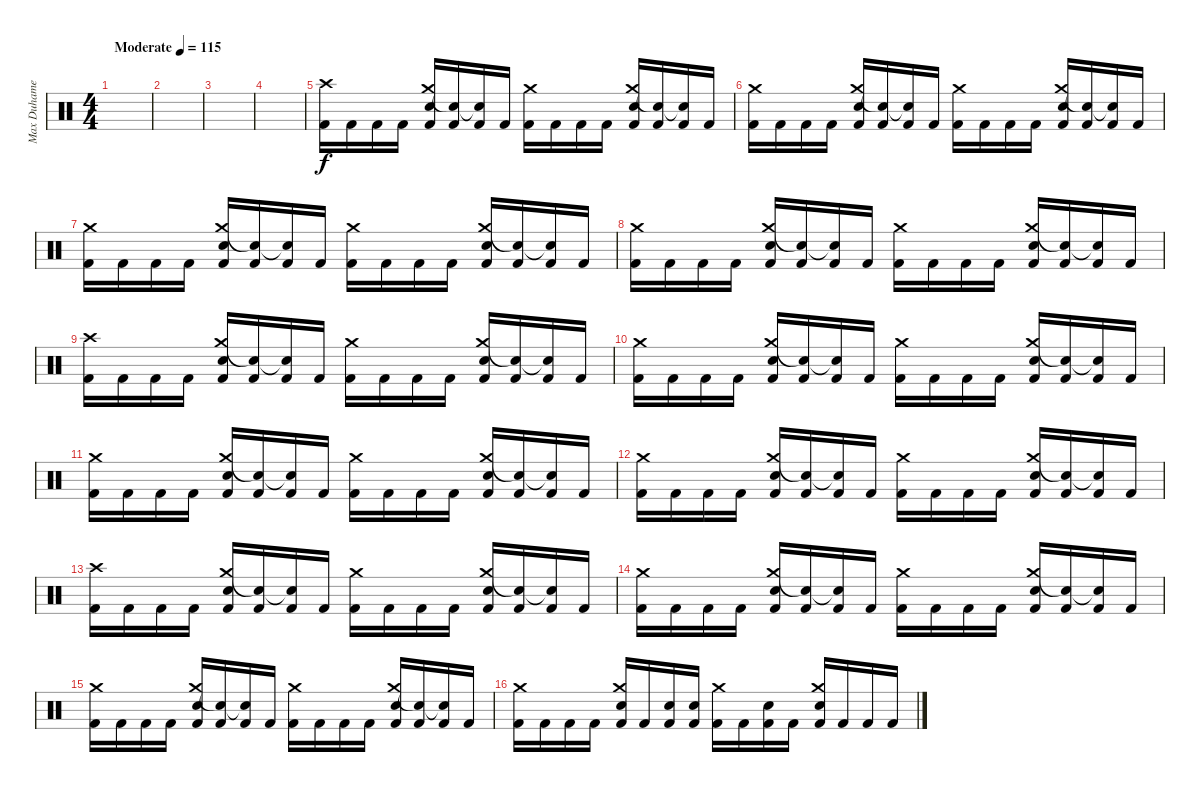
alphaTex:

\track ("Max Duhamel (Drums)" "Max Duhame") {instrument percussion}
\staff {score}
\articulation defaults
\ts (4 4)
\tempo (115 "Moderate")
\clef neutral
\ks c
|
|
|
|
("Crash high (hit)" "Kick (hit) 2").16 "Kick (hit) 2".16 "Kick (hit) 2".16 "Kick (hit) 2".16 ("Crash medium (hit)" "Electric Snare (hit)" "Kick (hit) 2").16 ("Snare (hit)"{t} "Kick (hit) 2").16 ("Snare (hit)"{t} "Kick (hit) 2").16 "Kick (hit) 2".16 ("Crash medium (hit)" "Kick (hit) 2").16 "Kick (hit) 2".16 "Kick (hit) 2".16 "Kick (hit) 2".16 ("Crash medium (hit)" "Electric Snare (hit)" "Kick (hit) 2").16 ("Snare (hit)"{t} "Kick (hit) 2").16 ("Snare (hit)"{t} "Kick (hit) 2").16 "Kick (hit) 2".16 |
("Crash medium (hit)" "Kick (hit) 2").16 "Kick (hit) 2".16 "Kick (hit) 2".16 "Kick (hit) 2".16 ("Crash medium (hit)" "Electric Snare (hit)" "Kick (hit) 2").16 ("Snare (hit)"{t} "Kick (hit) 2").16 ("Snare (hit)"{t} "Kick (hit) 2").16 "Kick (hit) 2".16 ("Crash medium (hit)" "Kick (hit) 2").16 "Kick (hit) 2".16 "Kick (hit) 2".16 "Kick (hit) 2".16 ("Crash medium (hit)" "Electric Snare (hit)" "Kick (hit) 2").16 ("Snare (hit)"{t} "Kick (hit) 2").16 ("Snare (hit)"{t} "Kick (hit) 2").16 "Kick (hit) 2".16 |
("Crash medium (hit)" "Kick (hit) 2").16 "Kick (hit) 2".16 "Kick (hit) 2".16 "Kick (hit) 2".16 ("Crash medium (hit)" "Electric Snare (hit)" "Kick (hit) 2").16 ("Snare (hit)"{t} "Kick (hit) 2").16 ("Snare (hit)"{t} "Kick (hit) 2").16 "Kick (hit) 2".16 ("Crash medium (hit)" "Kick (hit) 2").16 "Kick (hit) 2".16 "Kick (hit) 2".16 "Kick (hit) 2".16 ("Crash medium (hit)" "Electric Snare (hit)" "Kick (hit) 2").16 ("Snare (hit)"{t} "Kick (hit) 2").16 ("Snare (hit)"{t} "Kick (hit) 2").16 "Kick (hit) 2".16 |
("Crash medium (hit)" "Kick (hit) 2").16 "Kick (hit) 2".16 "Kick (hit) 2".16 "Kick (hit) 2".16 ("Crash medium (hit)" "Electric Snare (hit)" "Kick (hit) 2").16 ("Snare (hit)"{t} "Kick (hit) 2").16 ("Snare (hit)"{t} "Kick (hit) 2").16 "Kick (hit) 2".16 ("Crash medium (hit)" "Kick (hit) 2").16 "Kick (hit) 2".16 "Kick (hit) 2".16 "Kick (hit) 2".16 ("Crash medium (hit)" "Electric Snare (hit)" "Kick (hit) 2").16 ("Snare (hit)"{t} "Kick (hit) 2").16 ("Snare (hit)"{t} "Kick (hit) 2").16 "Kick (hit) 2".16 |
("Crash high (hit)" "Kick (hit) 2").16 "Kick (hit) 2".16 "Kick (hit) 2".16 "Kick (hit) 2".16 ("Crash medium (hit)" "Electric Snare (hit)" "Kick (hit) 2").16 ("Snare (hit)"{t} "Kick (hit) 2").16 ("Snare (hit)"{t} "Kick (hit) 2").16 "Kick (hit) 2".16 ("Crash medium (hit)" "Kick (hit) 2").16 "Kick (hit) 2".16 "Kick (hit) 2".16 "Kick (hit) 2".16 ("Crash medium (hit)" "Electric Snare (hit)" "Kick (hit) 2").16 ("Snare (hit)"{t} "Kick (hit) 2").16 ("Snare (hit)"{t} "Kick (hit) 2").16 "Kick (hit) 2".16 |
("Crash medium (hit)" "Kick (hit) 2").16 "Kick (hit) 2".16 "Kick (hit) 2".16 "Kick (hit) 2".16 ("Crash medium (hit)" "Electric Snare (hit)" "Kick (hit) 2").16 ("Snare (hit)"{t} "Kick (hit) 2").16 ("Snare (hit)"{t} "Kick (hit) 2").16 "Kick (hit) 2".16 ("Crash medium (hit)" "Kick (hit) 2").16 "Kick (hit) 2".16 "Kick (hit) 2".16 "Kick (hit) 2".16 ("Crash medium (hit)" "Electric Snare (hit)" "Kick (hit) 2").16 ("Snare (hit)"{t} "Kick (hit) 2").16 ("Snare (hit)"{t} "Kick (hit) 2").16 "Kick (hit) 2".16 |
("Crash medium (hit)" "Kick (hit) 2").16 "Kick (hit) 2".16 "Kick (hit) 2".16 "Kick (hit) 2".16 ("Crash medium (hit)" "Electric Snare (hit)" "Kick (hit) 2").16 ("Snare (hit)"{t} "Kick (hit) 2").16 ("Snare (hit)"{t} "Kick (hit) 2").16 "Kick (hit) 2".16 ("Crash medium (hit)" "Kick (hit) 2").16 "Kick (hit) 2".16 "Kick (hit) 2".16 "Kick (hit) 2".16 ("Crash medium (hit)" "Electric Snare (hit)" "Kick (hit) 2").16 ("Snare (hit)"{t} "Kick (hit) 2").16 ("Snare (hit)"{t} "Kick (hit) 2").16 "Kick (hit) 2".16 |
("Crash medium (hit)" "Kick (hit) 2").16 "Kick (hit) 2".16 "Kick (hit) 2".16 "Kick (hit) 2".16 ("Crash medium (hit)" "Electric Snare (hit)" "Kick (hit) 2").16 ("Snare (hit)"{t} "Kick (hit) 2").16 ("Snare (hit)"{t} "Kick (hit) 2").16 "Kick (hit) 2".16 ("Crash medium (hit)" "Kick (hit) 2").16 "Kick (hit) 2".16 "Kick (hit) 2".16 "Kick (hit) 2".16 ("Crash medium (hit)" "Electric Snare (hit)" "Kick (hit) 2").16 ("Snare (hit)"{t} "Kick (hit) 2").16 ("Snare (hit)"{t} "Kick (hit) 2").16 "Kick (hit) 2".16 |
("Crash high (hit)" "Kick (hit) 2").16 "Kick (hit) 2".16 "Kick (hit) 2".16 "Kick (hit) 2".16 ("Crash medium (hit)" "Electric Snare (hit)" "Kick (hit) 2").16 ("Snare (hit)"{t} "Kick (hit) 2").16 ("Snare (hit)"{t} "Kick (hit) 2").16 "Kick (hit) 2".16 ("Crash medium (hit)" "Kick (hit) 2").16 "Kick (hit) 2".16 "Kick (hit) 2".16 "Kick (hit) 2".16 ("Crash medium (hit)" "Electric Snare (hit)" "Kick (hit) 2").16 ("Snare (hit)"{t} "Kick (hit) 2").16 ("Snare (hit)"{t} "Kick (hit) 2").16 "Kick (hit) 2".16 |
("Crash medium (hit)" "Kick (hit) 2").16 "Kick (hit) 2".16 "Kick (hit) 2".16 "Kick (hit) 2".16 ("Crash medium (hit)" "Electric Snare (hit)" "Kick (hit) 2").16 ("Snare (hit)"{t} "Kick (hit) 2").16 ("Snare (hit)"{t} "Kick (hit) 2").16 "Kick (hit) 2".16 ("Crash medium (hit)" "Kick (hit) 2").16 "Kick (hit) 2".16 "Kick (hit) 2".16 "Kick (hit) 2".16 ("Crash medium (hit)" "Electric Snare (hit)" "Kick (hit) 2").16 ("Snare (hit)"{t} "Kick (hit) 2").16 ("Snare (hit)"{t} "Kick (hit) 2").16 "Kick (hit) 2".16 |
("Crash medium (hit)" "Kick (hit) 2").16 "Kick (hit) 2".16 "Kick (hit) 2".16 "Kick (hit) 2".16 ("Crash medium (hit)" "Electric Snare (hit)" "Kick (hit) 2").16 ("Snare (hit)"{t} "Kick (hit) 2").16 ("Snare (hit)"{t} "Kick (hit) 2").16 "Kick (hit) 2".16 ("Crash medium (hit)" "Kick (hit) 2").16 "Kick (hit) 2".16 "Kick (hit) 2".16 "Kick (hit) 2".16 ("Crash medium (hit)" "Electric Snare (hit)" "Kick (hit) 2").16 ("Snare (hit)"{t} "Kick (hit) 2").16 ("Snare (hit)"{t} "Kick (hit) 2").16 "Kick (hit) 2".16 |
("Crash medium (hit)" "Kick (hit) 2").16 "Kick (hit) 2".16 "Kick (hit) 2".16 "Kick (hit) 2".16 ("Crash medium (hit)" "Electric Snare (hit)" "Kick (hit) 2").16 "Kick (hit) 2".16 ("Electric Snare (hit)" "Kick (hit) 2").16 ("Electric Snare (hit)" "Kick (hit) 2").16 ("Crash medium (hit)" "Kick (hit) 2").16 "Kick (hit) 2".16 ("Electric Snare (hit)" "Kick (hit) 2").16 "Kick (hit) 2".16 ("Crash medium (hit)" "Electric Snare (hit)" "Kick (hit) 2").16 "Kick (hit) 2".16 "Kick (hit) 2".16 "Kick (hit) 2".16
